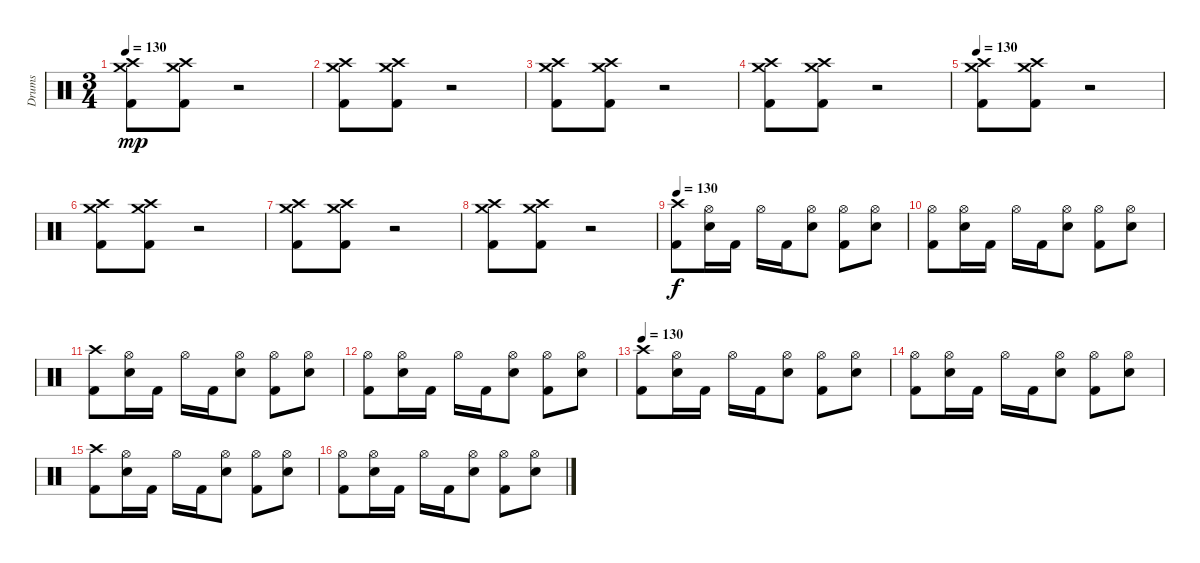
\track ("Drums" "Drums") {instrument percussion}
\staff {score}
\articulation defaults
\ts (3 4)
\tempo 130
\clef neutral
\ks c
("Kick (hit) 2" "Crash high (hit)" "Crash medium (hit)").8{dy mp} ("Kick (hit) 2" "Crash high (hit)" "Crash medium (hit)").8 r.2 |
("Kick (hit) 2" "Crash high (hit)" "Crash medium (hit)").8 ("Kick (hit) 2" "Crash high (hit)" "Crash medium (hit)").8 r.2 |
("Kick (hit) 2" "Crash high (hit)" "Crash medium (hit)").8 ("Kick (hit) 2" "Crash high (hit)" "Crash medium (hit)").8 r.2 |
("Kick (hit) 2" "Crash high (hit)" "Crash medium (hit)").8 ("Kick (hit) 2" "Crash high (hit)" "Crash medium (hit)").8 r.2 |
\tempo 130
("Kick (hit) 2" "Crash high (hit)" "Crash medium (hit)").8 ("Kick (hit) 2" "Crash high (hit)" "Crash medium (hit)").8 r.2 |
("Kick (hit) 2" "Crash high (hit)" "Crash medium (hit)").8 ("Kick (hit) 2" "Crash high (hit)" "Crash medium (hit)").8 r.2 |
("Kick (hit) 2" "Crash high (hit)" "Crash medium (hit)").8 ("Kick (hit) 2" "Crash high (hit)" "Crash medium (hit)").8 r.2 |
("Kick (hit) 2" "Crash high (hit)" "Crash medium (hit)").8 ("Kick (hit) 2" "Crash high (hit)" "Crash medium (hit)").8 r.2 |
\tempo 130
("Crash high (hit)" "Kick (hit) 2").8{dy f} ("Hi-Hat (open)" "Snare (hit) 2").16 "Kick (hit) 2".16 "Hi-Hat (open)".16 "Kick (hit) 2".16 ("Hi-Hat (open)" "Snare (hit) 2").8 ("Hi-Hat (open)" "Kick (hit) 2").8 ("Hi-Hat (open)" "Snare (hit) 2").8 |
("Hi-Hat (open)" "Kick (hit) 2").8 ("Hi-Hat (open)" "Snare (hit) 2").16 "Kick (hit) 2".16 "Hi-Hat (open)".16 "Kick (hit) 2".16 ("Hi-Hat (open)" "Snare (hit) 2").8 ("Hi-Hat (open)" "Kick (hit) 2").8 ("Hi-Hat (open)" "Snare (hit) 2").8 |
("Crash high (hit)" "Kick (hit) 2").8 ("Hi-Hat (open)" "Snare (hit) 2").16 "Kick (hit) 2".16 "Hi-Hat (open)".16 "Kick (hit) 2".16 ("Hi-Hat (open)" "Snare (hit) 2").8 ("Hi-Hat (open)" "Kick (hit) 2").8 ("Hi-Hat (open)" "Snare (hit) 2").8 |
("Hi-Hat (open)" "Kick (hit) 2").8 ("Hi-Hat (open)" "Snare (hit) 2").16 "Kick (hit) 2".16 "Hi-Hat (open)".16 "Kick (hit) 2".16 ("Hi-Hat (open)" "Snare (hit) 2").8 ("Hi-Hat (open)" "Kick (hit) 2").8 ("Hi-Hat (open)" "Snare (hit) 2").8 |
\tempo 130
("Crash high (hit)" "Kick (hit) 2").8 ("Hi-Hat (open)" "Snare (hit) 2").16 "Kick (hit) 2".16 "Hi-Hat (open)".16 "Kick (hit) 2".16 ("Hi-Hat (open)" "Snare (hit) 2").8 ("Hi-Hat (open)" "Kick (hit) 2").8 ("Hi-Hat (open)" "Snare (hit) 2").8 |
("Hi-Hat (open)" "Kick (hit) 2").8 ("Hi-Hat (open)" "Snare (hit) 2").16 "Kick (hit) 2".16 "Hi-Hat (open)".16 "Kick (hit) 2".16 ("Hi-Hat (open)" "Snare (hit) 2").8 ("Hi-Hat (open)" "Kick (hit) 2").8 ("Hi-Hat (open)" "Snare (hit) 2").8 |
("Crash high (hit)" "Kick (hit) 2").8 ("Hi-Hat (open)" "Snare (hit) 2").16 "Kick (hit) 2".16 "Hi-Hat (open)".16 "Kick (hit) 2".16 ("Hi-Hat (open)" "Snare (hit) 2").8 ("Hi-Hat (open)" "Kick (hit) 2").8 ("Hi-Hat (open)" "Snare (hit) 2").8 |
("Hi-Hat (open)" "Kick (hit) 2").8 ("Hi-Hat (open)" "Snare (hit) 2").16 "Kick (hit) 2".16 "Hi-Hat (open)".16 "Kick (hit) 2".16 ("Hi-Hat (open)" "Snare (hit) 2").8 ("Hi-Hat (open)" "Kick (hit) 2").8 ("Hi-Hat (open)" "Snare (hit) 2").8
